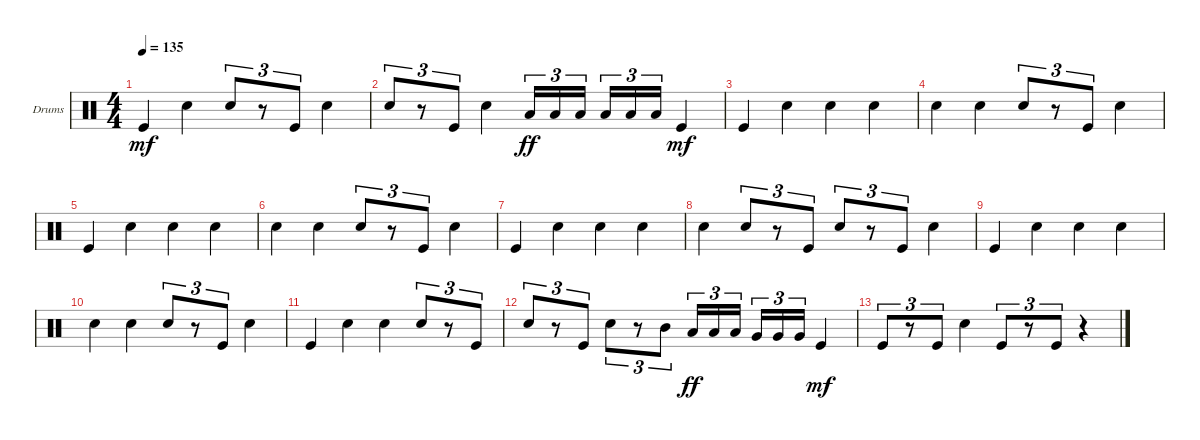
\defaultSystemsLayout 4
\bracketExtendMode groupsimilarinstruments
\firstSystemTrackNameOrientation horizontal
\otherSystemsTrackNameOrientation horizontal
\track ("Drumkit" "Drums") {instrument percussion}
\staff {score}
\articulation defaults
\ts (4 4)
\tempo 135
\clef neutral
\scale
0.333333
\ks c "Kick (hit)".4{dy mf} "Snare (hit) 2".4 "Snare (hit) 2".8{tu (3 2)}
r.8{tu (3 2)} "Kick (hit)".8{tu (3 2)} "Snare (hit) 2".4 |
\scale
0.333333 "Snare (hit) 2".8{tu (3 2)} r.8{tu (3 2)} "Kick (hit)".8{tu (3 2)} "Snare (hit) 2".4 "Low Tom (hit)".16{tu (3 2) dy ff} "Low Tom (hit)".16{tu (3 2)} "Low Tom (hit)".16{tu (3 2)} "Low Tom (hit)".16{tu (3 2)} "Low Tom (hit)".16{tu (3 2)} "Low Tom (hit)".16{tu (3 2)} "Kick (hit)".4{dy mf} |
\scale
0.333333 "Kick (hit)".4 "Snare (hit) 2".4 "Snare (hit) 2".4 "Snare (hit) 2".4 |
\scale
0.333333 "Snare (hit) 2".4 "Snare (hit) 2".4 "Snare (hit) 2".8{tu (3 2)} r.8{tu (3 2)} "Kick (hit)".8{tu (3 2)} "Snare (hit) 2".4 |
\scale
0.333333 "Kick (hit)".4 "Snare (hit) 2".4 "Snare (hit) 2".4 "Snare (hit) 2".4 |
\scale
0.333333 "Snare (hit) 2".4 "Snare (hit) 2".4 "Snare (hit) 2".8{tu (3 2)} r.8{tu (3 2)} "Kick (hit)".8{tu (3 2)} "Snare (hit) 2".4 |
\scale
0.333333 "Kick (hit)".4 "Snare (hit) 2".4 "Snare (hit) 2".4 "Snare (hit) 2".4 |
\scale
0.333333 "Snare (hit) 2".4 "Snare (hit) 2".8{tu (3 2)} r.8{tu (3 2)} "Kick (hit)".8{tu (3 2)} "Snare (hit) 2".8{tu (3 2)} r.8{tu (3 2)} "Kick (hit)".8{tu (3 2)} "Snare (hit) 2".4 |
\scale
0.333333 "Kick (hit)".4 "Snare (hit) 2".4 "Snare (hit) 2".4 "Snare (hit) 2".4 |
\scale
0.333333 "Snare (hit) 2".4 "Snare (hit) 2".4 "Snare (hit) 2".8{tu (3 2)} r.8{tu (3 2)} "Kick (hit)".8{tu (3 2)} "Snare (hit) 2".4 |
\scale
0.333333 "Kick (hit)".4 "Snare (hit) 2".4 "Snare (hit) 2".4 "Snare (hit) 2".8{tu (3 2)} r.8{tu (3 2)} "Kick (hit)".8{tu (3 2)} |
"Snare (hit) 2".8{tu (3 2)} r.8{tu (3 2)} "Kick (hit)".8{tu (3 2)} "Snare (hit) 2".8{tu (3 2)} r.8{tu (3 2)} "Mid Tom (hit)".8{tu (3 2)} "Low Tom (hit)".16{tu (3 2) dy ff} "Low Tom (hit)".16{tu (3 2)} "Low Tom (hit)".16{tu (3 2)} "Very Low Tom (hit)".16{tu (3 2)} "Very Low Tom (hit)".16{tu (3 2)} "Very Low Tom (hit)".16{tu (3 2)} "Kick (hit)".4{dy mf} |
"Kick (hit)".8{tu (3 2)} r.8{tu (3 2)} "Kick (hit)".8{tu (3 2)} "Snare (hit) 2".4 "Kick (hit)".8{tu (3 2)} r.8{tu (3 2)} "Kick (hit)".8{tu (3 2)} r.4
